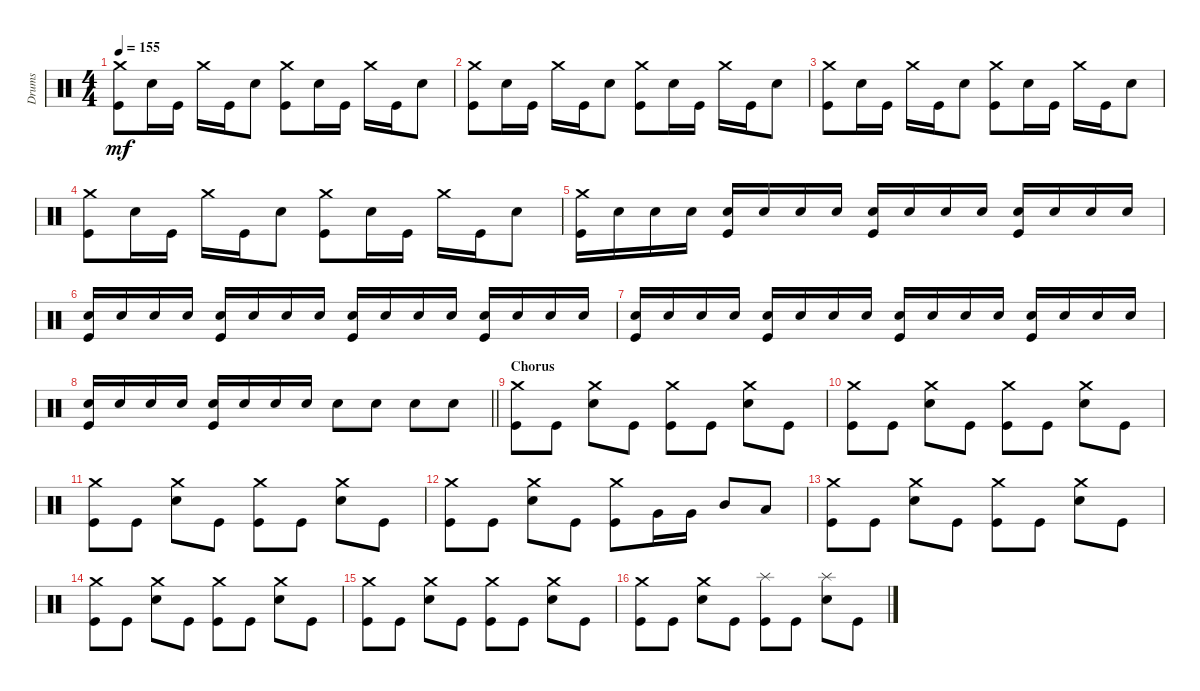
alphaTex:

\track ("Drums" "Drums") {instrument percussion}
\staff {score}
\articulation defaults
\ts (4 4)
\tempo 155
\clef neutral
\ks c
("Kick (hit)" "Crash medium (hit)").8{dy mf} "Snare (hit) 2".16 "Kick (hit)".16 "Crash medium (hit)".16 "Kick (hit)".16 "Snare (hit) 2".8 ("Kick (hit)" "Crash medium (hit)").8 "Snare (hit) 2".16 "Kick (hit)".16 "Crash medium (hit)".16 "Kick (hit)".16 "Snare (hit) 2".8 |
("Kick (hit)" "Crash medium (hit)").8 "Snare (hit) 2".16 "Kick (hit)".16 "Crash medium (hit)".16 "Kick (hit)".16 "Snare (hit) 2".8 ("Kick (hit)" "Crash medium (hit)").8 "Snare (hit) 2".16 "Kick (hit)".16 "Crash medium (hit)".16 "Kick (hit)".16 "Snare (hit) 2".8 |
("Kick (hit)" "Crash medium (hit)").8 "Snare (hit) 2".16 "Kick (hit)".16 "Crash medium (hit)".16 "Kick (hit)".16 "Snare (hit) 2".8 ("Kick (hit)" "Crash medium (hit)").8 "Snare (hit) 2".16 "Kick (hit)".16 "Crash medium (hit)".16 "Kick (hit)".16 "Snare (hit) 2".8 |
("Kick (hit)" "Crash medium (hit)").8 "Snare (hit) 2".16 "Kick (hit)".16 "Crash medium (hit)".16 "Kick (hit)".16 "Snare (hit) 2".8 ("Kick (hit)" "Crash medium (hit)").8 "Snare (hit) 2".16 "Kick (hit)".16 "Crash medium (hit)".16 "Kick (hit)".16 "Snare (hit) 2".8 |
("Kick (hit)" "Crash medium (hit)").16 "Snare (hit) 2".16 "Snare (hit) 2".16 "Snare (hit) 2".16 ("Kick (hit)" "Snare (hit) 2").16 "Snare (hit) 2".16 "Snare (hit) 2".16 "Snare (hit) 2".16 ("Kick (hit)" "Snare (hit) 2").16 "Snare (hit) 2".16 "Snare (hit) 2".16 "Snare (hit) 2".16 ("Kick (hit)" "Snare (hit) 2").16 "Snare (hit) 2".16 "Snare (hit) 2".16 "Snare (hit) 2".16 |
("Kick (hit)" "Snare (hit) 2").16 "Snare (hit) 2".16 "Snare (hit) 2".16 "Snare (hit) 2".16 ("Kick (hit)" "Snare (hit) 2").16 "Snare (hit) 2".16 "Snare (hit) 2".16 "Snare (hit) 2".16 ("Kick (hit)" "Snare (hit) 2").16 "Snare (hit) 2".16 "Snare (hit) 2".16 "Snare (hit) 2".16 ("Kick (hit)" "Snare (hit) 2").16 "Snare (hit) 2".16 "Snare (hit) 2".16 "Snare (hit) 2".16 |
("Kick (hit)" "Snare (hit) 2").16 "Snare (hit) 2".16 "Snare (hit) 2".16 "Snare (hit) 2".16 ("Kick (hit)" "Snare (hit) 2").16 "Snare (hit) 2".16 "Snare (hit) 2".16 "Snare (hit) 2".16 ("Kick (hit)" "Snare (hit) 2").16 "Snare (hit) 2".16 "Snare (hit) 2".16 "Snare (hit) 2".16 ("Kick (hit)" "Snare (hit) 2").16 "Snare (hit) 2".16 "Snare (hit) 2".16 "Snare (hit) 2".16 |
\barLineRight lightlight
("Kick (hit)" "Snare (hit) 2").16 "Snare (hit) 2".16 "Snare (hit) 2".16 "Snare (hit) 2".16 ("Kick (hit)" "Snare (hit) 2").16 "Snare (hit) 2".16 "Snare (hit) 2".16 "Snare (hit) 2".16 "Snare (hit) 2".8 "Snare (hit) 2".8 "Snare (hit) 2".8 "Snare (hit) 2".8 |
\section ("" "Chorus")
("Kick (hit)" "Crash medium (hit)").8 "Kick (hit)".8 ("Snare (hit) 2" "Crash medium (hit)").8 "Kick (hit)".8 ("Kick (hit)" "Crash medium (hit)").8 "Kick (hit)".8 ("Snare (hit) 2" "Crash medium (hit)").8 "Kick (hit)".8 |
("Kick (hit)" "Crash medium (hit)").8 "Kick (hit)".8 ("Snare (hit) 2" "Crash medium (hit)").8 "Kick (hit)".8 ("Kick (hit)" "Crash medium (hit)").8 "Kick (hit)".8 ("Snare (hit) 2" "Crash medium (hit)").8 "Kick (hit)".8 |
("Kick (hit)" "Crash medium (hit)").8 "Kick (hit)".8 ("Snare (hit) 2" "Crash medium (hit)").8 "Kick (hit)".8 ("Kick (hit)" "Crash medium (hit)").8 "Kick (hit)".8 ("Snare (hit) 2" "Crash medium (hit)").8 "Kick (hit)".8 |
("Kick (hit)" "Crash medium (hit)").8 "Kick (hit)".8 ("Snare (hit) 2" "Crash medium (hit)").8 "Kick (hit)".8 ("Kick (hit)" "Crash medium (hit)").8 "Very Low Tom (hit)".16 "Very Low Tom (hit)".16 "Mid Tom (hit)".8 "Low Tom (hit)".8 |
("Kick (hit)" "Crash medium (hit)").8 "Kick (hit)".8 ("Snare (hit) 2" "Crash medium (hit)").8 "Kick (hit)".8 ("Kick (hit)" "Crash medium (hit)").8 "Kick (hit)".8 ("Snare (hit) 2" "Crash medium (hit)").8 "Kick (hit)".8 |
("Kick (hit)" "Crash medium (hit)").8 "Kick (hit)".8 ("Snare (hit) 2" "Crash medium (hit)").8 "Kick (hit)".8 ("Kick (hit)" "Crash medium (hit)").8 "Kick (hit)".8 ("Snare (hit) 2" "Crash medium (hit)").8 "Kick (hit)".8 |
("Kick (hit)" "Crash medium (hit)").8 "Kick (hit)".8 ("Snare (hit) 2" "Crash medium (hit)").8 "Kick (hit)".8 ("Kick (hit)" "Crash medium (hit)").8 "Kick (hit)".8 ("Snare (hit) 2" "Crash medium (hit)").8 "Kick (hit)".8 |
("Kick (hit)" "Crash medium (hit)").8 "Kick (hit)".8 ("Snare (hit) 2" "Crash medium (hit)").8 "Kick (hit)".8 ("Kick (hit)" "Splash (hit)").8 "Kick (hit)".8 ("Snare (hit) 2" "Splash (hit)").8 "Kick (hit)".8
